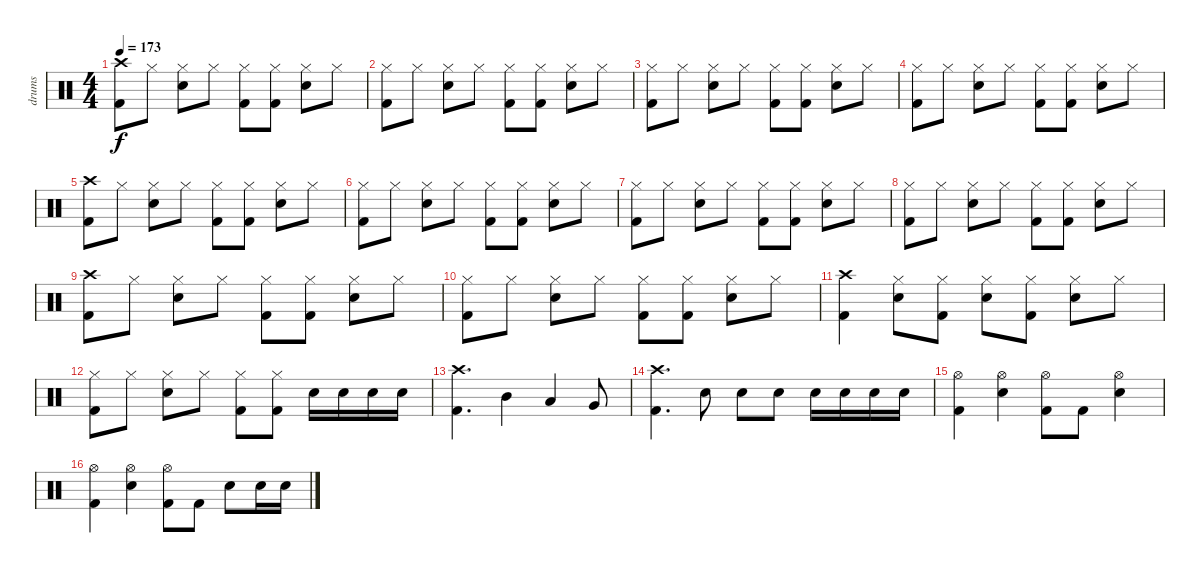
\track ("drums" "drums") {instrument percussion}
\staff {score}
\articulation defaults
\ts (4 4)
\tempo 173
\clef neutral
\ks c
("Kick (hit) 2" "Crash high (hit)").8{dy f} "Hi-Hat (closed)".8 ("Electric Snare (hit)" "Hi-Hat (closed)").8 "Hi-Hat (closed)".8 ("Kick (hit) 2" "Hi-Hat (closed)").8 ("Kick (hit) 2" "Hi-Hat (closed)").8 ("Electric Snare (hit)" "Hi-Hat (closed)").8 "Hi-Hat (closed)".8 |
("Kick (hit) 2" "Hi-Hat (closed)").8 "Hi-Hat (closed)".8 ("Electric Snare (hit)" "Hi-Hat (closed)").8 "Hi-Hat (closed)".8 ("Kick (hit) 2" "Hi-Hat (closed)").8 ("Kick (hit) 2" "Hi-Hat (closed)").8 ("Electric Snare (hit)" "Hi-Hat (closed)").8 "Hi-Hat (closed)".8 |
("Kick (hit) 2" "Hi-Hat (closed)").8 "Hi-Hat (closed)".8 ("Electric Snare (hit)" "Hi-Hat (closed)").8 "Hi-Hat (closed)".8 ("Kick (hit) 2" "Hi-Hat (closed)").8 ("Kick (hit) 2" "Hi-Hat (closed)").8 ("Electric Snare (hit)" "Hi-Hat (closed)").8 "Hi-Hat (closed)".8 |
("Kick (hit) 2" "Hi-Hat (closed)").8 "Hi-Hat (closed)".8 ("Electric Snare (hit)" "Hi-Hat (closed)").8 "Hi-Hat (closed)".8 ("Kick (hit) 2" "Hi-Hat (closed)").8 ("Kick (hit) 2" "Hi-Hat (closed)").8 ("Electric Snare (hit)" "Hi-Hat (closed)").8 "Hi-Hat (closed)".8 |
("Kick (hit) 2" "Crash high (hit)").8 "Hi-Hat (closed)".8 ("Electric Snare (hit)" "Hi-Hat (closed)").8 "Hi-Hat (closed)".8 ("Kick (hit) 2" "Hi-Hat (closed)").8 ("Kick (hit) 2" "Hi-Hat (closed)").8 ("Electric Snare (hit)" "Hi-Hat (closed)").8 "Hi-Hat (closed)".8 |
("Kick (hit) 2" "Hi-Hat (closed)").8 "Hi-Hat (closed)".8 ("Electric Snare (hit)" "Hi-Hat (closed)").8 "Hi-Hat (closed)".8 ("Kick (hit) 2" "Hi-Hat (closed)").8 ("Kick (hit) 2" "Hi-Hat (closed)").8 ("Electric Snare (hit)" "Hi-Hat (closed)").8 "Hi-Hat (closed)".8 |
("Kick (hit) 2" "Hi-Hat (closed)").8 "Hi-Hat (closed)".8 ("Electric Snare (hit)" "Hi-Hat (closed)").8 "Hi-Hat (closed)".8 ("Kick (hit) 2" "Hi-Hat (closed)").8 ("Kick (hit) 2" "Hi-Hat (closed)").8 ("Electric Snare (hit)" "Hi-Hat (closed)").8 "Hi-Hat (closed)".8 |
("Kick (hit) 2" "Hi-Hat (closed)").8 "Hi-Hat (closed)".8 ("Electric Snare (hit)" "Hi-Hat (closed)").8 "Hi-Hat (closed)".8 ("Kick (hit) 2" "Hi-Hat (closed)").8 ("Kick (hit) 2" "Hi-Hat (closed)").8 ("Electric Snare (hit)" "Hi-Hat (closed)").8 "Hi-Hat (closed)".8 |
("Kick (hit) 2" "Crash high (hit)").8 "Hi-Hat (closed)".8 ("Electric Snare (hit)" "Hi-Hat (closed)").8 "Hi-Hat (closed)".8 ("Kick (hit) 2" "Hi-Hat (closed)").8 ("Kick (hit) 2" "Hi-Hat (closed)").8 ("Electric Snare (hit)" "Hi-Hat (closed)").8 "Hi-Hat (closed)".8 |
("Kick (hit) 2" "Hi-Hat (closed)").8 "Hi-Hat (closed)".8 ("Electric Snare (hit)" "Hi-Hat (closed)").8 "Hi-Hat (closed)".8 ("Kick (hit) 2" "Hi-Hat (closed)").8 ("Kick (hit) 2" "Hi-Hat (closed)").8 ("Electric Snare (hit)" "Hi-Hat (closed)").8 "Hi-Hat (closed)".8 |
("Kick (hit) 2" "Crash high (hit)").4 ("Electric Snare (hit)" "Hi-Hat (closed)").8 ("Kick (hit) 2" "Hi-Hat (closed)").8 ("Electric Snare (hit)" "Hi-Hat (closed)").8 ("Kick (hit) 2" "Hi-Hat (closed)").8 ("Electric Snare (hit)" "Hi-Hat (closed)").8 "Hi-Hat (closed)".8 |
("Kick (hit) 2" "Hi-Hat (closed)").8 "Hi-Hat (closed)".8 ("Electric Snare (hit)" "Hi-Hat (closed)").8 "Hi-Hat (closed)".8 ("Kick (hit) 2" "Hi-Hat (closed)").8 ("Kick (hit) 2" "Hi-Hat (closed)").8 "Electric Snare (hit)".16 "Electric Snare (hit)".16 "Electric Snare (hit)".16 "Electric Snare (hit)".16 |
("Crash high (hit)" "Kick (hit) 2").4{d} "Mid Tom (hit)".4 "Low Tom (hit)".4 "Very Low Tom (hit)".8 |
("Crash high (hit)" "Kick (hit) 2").4{d} "Electric Snare (hit)".8 "Electric Snare (hit)".8 "Electric Snare (hit)".8 "Electric Snare (hit)".16 "Electric Snare (hit)".16 "Electric Snare (hit)".16 "Electric Snare (hit)".16 |
("Hi-Hat (open)" "Kick (hit) 2").4 ("Hi-Hat (open)" "Electric Snare (hit)").4 ("Hi-Hat (open)" "Kick (hit) 2").8 "Kick (hit) 2".8 ("Hi-Hat (open)" "Electric Snare (hit)").4 |
("Hi-Hat (open)" "Kick (hit) 2").4 ("Hi-Hat (open)" "Electric Snare (hit)").4 ("Hi-Hat (open)" "Kick (hit) 2").8 "Kick (hit) 2".8 "Electric Snare (hit)".8 "Electric Snare (hit)".16 "Electric Snare (hit)".16
